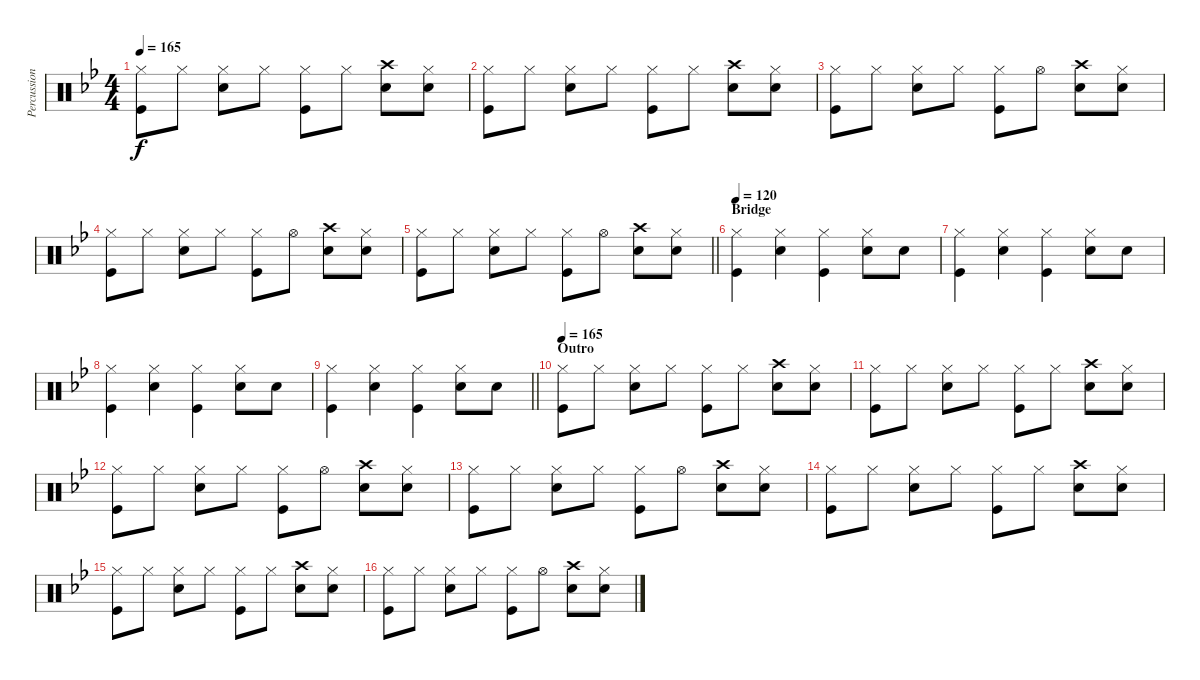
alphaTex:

\track ("Percussions" "Percussion") {instrument percussion}
\staff {score}
\articulation defaults
\ts (4 4)
\tempo 165
\clef neutral
\ks bb
("Hi-Hat (closed)" "Kick (hit)").8{dy f} "Hi-Hat (closed)".8 ("Hi-Hat (closed)" "Snare (hit) 2").8 "Hi-Hat (closed)".8 ("Hi-Hat (closed)" "Kick (hit)").8 "Hi-Hat (closed)".8 ("Crash high (hit)" "Snare (hit) 2").8 ("Hi-Hat (closed)" "Snare (hit) 2").8 |
("Hi-Hat (closed)" "Kick (hit)").8 "Hi-Hat (closed)".8 ("Hi-Hat (closed)" "Snare (hit) 2").8 "Hi-Hat (closed)".8 ("Hi-Hat (closed)" "Kick (hit)").8 "Hi-Hat (closed)".8 ("Crash high (hit)" "Snare (hit) 2").8 ("Hi-Hat (closed)" "Snare (hit) 2").8 |
("Hi-Hat (closed)" "Kick (hit)").8 "Hi-Hat (closed)".8 ("Hi-Hat (closed)" "Snare (hit) 2").8 "Hi-Hat (closed)".8 ("Hi-Hat (closed)" "Kick (hit)").8 "Hi-Hat (open)".8 ("Crash high (hit)" "Snare (hit) 2").8 ("Hi-Hat (closed)" "Snare (hit) 2").8 |
("Hi-Hat (closed)" "Kick (hit)").8 "Hi-Hat (closed)".8 ("Hi-Hat (closed)" "Snare (hit) 2").8 "Hi-Hat (closed)".8 ("Hi-Hat (closed)" "Kick (hit)").8 "Hi-Hat (open)".8 ("Crash high (hit)" "Snare (hit) 2").8 ("Hi-Hat (closed)" "Snare (hit) 2").8 |
\barLineRight lightlight
("Hi-Hat (closed)" "Kick (hit)").8 "Hi-Hat (closed)".8 ("Hi-Hat (closed)" "Snare (hit) 2").8 "Hi-Hat (closed)".8 ("Hi-Hat (closed)" "Kick (hit)").8 "Hi-Hat (open)".8 ("Crash high (hit)" "Snare (hit) 2").8 ("Hi-Hat (closed)" "Snare (hit) 2").8 |
\section ("" "Bridge")
\tempo 120
("Hi-Hat (closed)" "Kick (hit)").4 ("Hi-Hat (closed)" "Snare (hit) 2").4 ("Hi-Hat (closed)" "Kick (hit)").4 ("Hi-Hat (closed)" "Snare (hit) 2").8 "Snare (hit) 2".8 |
("Hi-Hat (closed)" "Kick (hit)").4 ("Hi-Hat (closed)" "Snare (hit) 2").4 ("Hi-Hat (closed)" "Kick (hit)").4 ("Hi-Hat (closed)" "Snare (hit) 2").8 "Snare (hit) 2".8 |
("Hi-Hat (closed)" "Kick (hit)").4 ("Hi-Hat (closed)" "Snare (hit) 2").4 ("Hi-Hat (closed)" "Kick (hit)").4 ("Hi-Hat (closed)" "Snare (hit) 2").8 "Snare (hit) 2".8 |
\barLineRight lightlight
("Hi-Hat (closed)" "Kick (hit)").4 ("Hi-Hat (closed)" "Snare (hit) 2").4 ("Hi-Hat (closed)" "Kick (hit)").4 ("Hi-Hat (closed)" "Snare (hit) 2").8 "Snare (hit) 2".8 |
\section ("" "Outro")
\tempo 165
("Hi-Hat (closed)" "Kick (hit)").8 "Hi-Hat (closed)".8 ("Hi-Hat (closed)" "Snare (hit) 2").8 "Hi-Hat (closed)".8 ("Hi-Hat (closed)" "Kick (hit)").8 "Hi-Hat (closed)".8 ("Crash high (hit)" "Snare (hit) 2").8 ("Hi-Hat (closed)" "Snare (hit) 2").8 |
("Hi-Hat (closed)" "Kick (hit)").8 "Hi-Hat (closed)".8 ("Hi-Hat (closed)" "Snare (hit) 2").8 "Hi-Hat (closed)".8 ("Hi-Hat (closed)" "Kick (hit)").8 "Hi-Hat (closed)".8 ("Crash high (hit)" "Snare (hit) 2").8 ("Hi-Hat (closed)" "Snare (hit) 2").8 |
("Hi-Hat (closed)" "Kick (hit)").8 "Hi-Hat (closed)".8 ("Hi-Hat (closed)" "Snare (hit) 2").8 "Hi-Hat (closed)".8 ("Hi-Hat (closed)" "Kick (hit)").8 "Hi-Hat (open)".8 ("Crash high (hit)" "Snare (hit) 2").8 ("Hi-Hat (closed)" "Snare (hit) 2").8 |
("Hi-Hat (closed)" "Kick (hit)").8 "Hi-Hat (closed)".8 ("Hi-Hat (closed)" "Snare (hit) 2").8 "Hi-Hat (closed)".8 ("Hi-Hat (closed)" "Kick (hit)").8 "Hi-Hat (open)".8 ("Crash high (hit)" "Snare (hit) 2").8 ("Hi-Hat (closed)" "Snare (hit) 2").8 |
("Hi-Hat (closed)" "Kick (hit)").8 "Hi-Hat (closed)".8 ("Hi-Hat (closed)" "Snare (hit) 2").8 "Hi-Hat (closed)".8 ("Hi-Hat (closed)" "Kick (hit)").8 "Hi-Hat (closed)".8 ("Crash high (hit)" "Snare (hit) 2").8 ("Hi-Hat (closed)" "Snare (hit) 2").8 |
("Hi-Hat (closed)" "Kick (hit)").8 "Hi-Hat (closed)".8 ("Hi-Hat (closed)" "Snare (hit) 2").8 "Hi-Hat (closed)".8 ("Hi-Hat (closed)" "Kick (hit)").8 "Hi-Hat (closed)".8 ("Crash high (hit)" "Snare (hit) 2").8 ("Hi-Hat (closed)" "Snare (hit) 2").8 |
("Hi-Hat (closed)" "Kick (hit)").8 "Hi-Hat (closed)".8 ("Hi-Hat (closed)" "Snare (hit) 2").8 "Hi-Hat (closed)".8 ("Hi-Hat (closed)" "Kick (hit)").8 "Hi-Hat (open)".8 ("Crash high (hit)" "Snare (hit) 2").8 ("Hi-Hat (closed)" "Snare (hit) 2").8
